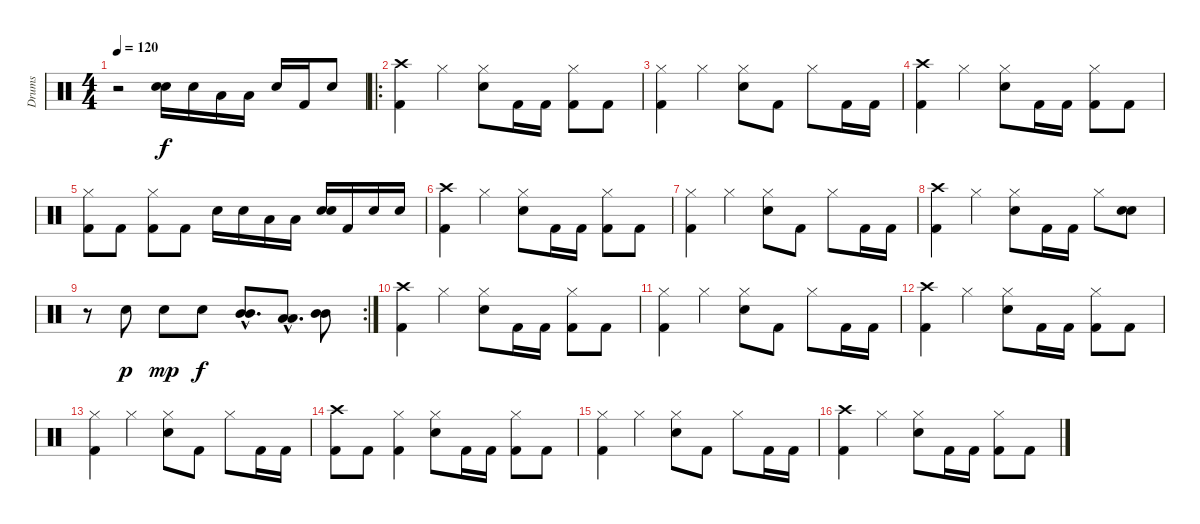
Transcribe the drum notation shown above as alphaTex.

\track ("Drums" "Drums") {instrument percussion}
\staff {score}
\articulation defaults
\ts (4 4)
\tempo 120
\clef neutral
\ks c
r.2{dy f} ("Electric Snare (hit)" "Electric Snare (hit)").16{bd 480} "Electric Snare (hit)".16 "Low Tom (hit)".16 "Low Tom (hit)".16 "Electric Snare (hit)".16 "Kick (hit) 2".16 "Electric Snare (hit)".8 |
\ro
("Crash high (hit)" "Kick (hit) 2").4 "Hi-Hat (closed)".4 ("Hi-Hat (closed)" "Electric Snare (hit)").8 "Kick (hit) 2".16 "Kick (hit) 2".16 ("Hi-Hat (closed)" "Kick (hit) 2").8 "Kick (hit) 2".8 |
("Hi-Hat (closed)" "Kick (hit) 2").4 "Hi-Hat (closed)".4 ("Hi-Hat (closed)" "Electric Snare (hit)").8 "Kick (hit) 2".8 "Hi-Hat (closed)".8 "Kick (hit) 2".16 "Kick (hit) 2".16 |
("Crash high (hit)" "Kick (hit) 2").4 "Hi-Hat (closed)".4 ("Hi-Hat (closed)" "Electric Snare (hit)").8 "Kick (hit) 2".16 "Kick (hit) 2".16 ("Hi-Hat (closed)" "Kick (hit) 2").8 "Kick (hit) 2".8 |
("Hi-Hat (closed)" "Kick (hit) 2").8 "Kick (hit) 2".8 ("Hi-Hat (closed)" "Kick (hit) 2").8 "Kick (hit) 2".8 "Electric Snare (hit)".16 "Electric Snare (hit)".16 "Low Tom (hit)".16 "Low Tom (hit)".16 ("Electric Snare (hit)" "Electric Snare (hit)").16{bd 240} "Kick (hit) 2".16 "Electric Snare (hit)".16 "Electric Snare (hit)".16 |
("Crash high (hit)" "Kick (hit) 2").4 "Hi-Hat (closed)".4 ("Hi-Hat (closed)" "Electric Snare (hit)").8 "Kick (hit) 2".16 "Kick (hit) 2".16 ("Hi-Hat (closed)" "Kick (hit) 2").8 "Kick (hit) 2".8 |
("Hi-Hat (closed)" "Kick (hit) 2").4 "Hi-Hat (closed)".4 ("Hi-Hat (closed)" "Electric Snare (hit)").8 "Kick (hit) 2".8 "Hi-Hat (closed)".8 "Kick (hit) 2".16 "Kick (hit) 2".16 |
("Crash high (hit)" "Kick (hit) 2").4 "Hi-Hat (closed)".4 ("Hi-Hat (closed)" "Electric Snare (hit)").8 "Kick (hit) 2".16 "Kick (hit) 2".16 "Hi-Hat (closed)".8 ("Electric Snare (hit)" "Electric Snare (hit)").8{bd 240} |
\rc 2
r.8 "Electric Snare (hit)".8{dy p} "Electric Snare (hit)".8{dy mp} "Electric Snare (hit)".8{dy f} ("Mid Tom (hit)"{hac} "Mid Tom (hit)"{hac}).8{d bd 240} ("Low Tom (hit)"{hac} "Low Tom (hit)"{hac}).8{d bd 240} ("Mid Tom (hit)" "Mid Tom (hit)").8{bd 240} |
("Crash high (hit)" "Kick (hit) 2").4 "Hi-Hat (closed)".4 ("Hi-Hat (closed)" "Electric Snare (hit)").8 "Kick (hit) 2".16 "Kick (hit) 2".16 ("Hi-Hat (closed)" "Kick (hit) 2").8 "Kick (hit) 2".8 |
("Hi-Hat (closed)" "Kick (hit) 2").4 "Hi-Hat (closed)".4 ("Hi-Hat (closed)" "Electric Snare (hit)").8 "Kick (hit) 2".8 "Hi-Hat (closed)".8 "Kick (hit) 2".16 "Kick (hit) 2".16 |
("Crash high (hit)" "Kick (hit) 2").4 "Hi-Hat (closed)".4 ("Hi-Hat (closed)" "Electric Snare (hit)").8 "Kick (hit) 2".16 "Kick (hit) 2".16 ("Hi-Hat (closed)" "Kick (hit) 2").8 "Kick (hit) 2".8 |
("Hi-Hat (closed)" "Kick (hit) 2").4 "Hi-Hat (closed)".4 ("Hi-Hat (closed)" "Electric Snare (hit)").8 "Kick (hit) 2".8 "Hi-Hat (closed)".8 "Kick (hit) 2".16 "Kick (hit) 2".16 |
("Crash high (hit)" "Kick (hit) 2").8 "Kick (hit) 2".8 ("Hi-Hat (closed)" "Kick (hit) 2").4 ("Hi-Hat (closed)" "Electric Snare (hit)").8 "Kick (hit) 2".16 "Kick (hit) 2".16 ("Hi-Hat (closed)" "Kick (hit) 2").8 "Kick (hit) 2".8 |
("Hi-Hat (closed)" "Kick (hit) 2").4 "Hi-Hat (closed)".4 ("Hi-Hat (closed)" "Electric Snare (hit)").8 "Kick (hit) 2".8 "Hi-Hat (closed)".8 "Kick (hit) 2".16 "Kick (hit) 2".16 |
("Crash high (hit)" "Kick (hit) 2").4 "Hi-Hat (closed)".4 ("Hi-Hat (closed)" "Electric Snare (hit)").8 "Kick (hit) 2".16 "Kick (hit) 2".16 ("Hi-Hat (closed)" "Kick (hit) 2").8 "Kick (hit) 2".8
